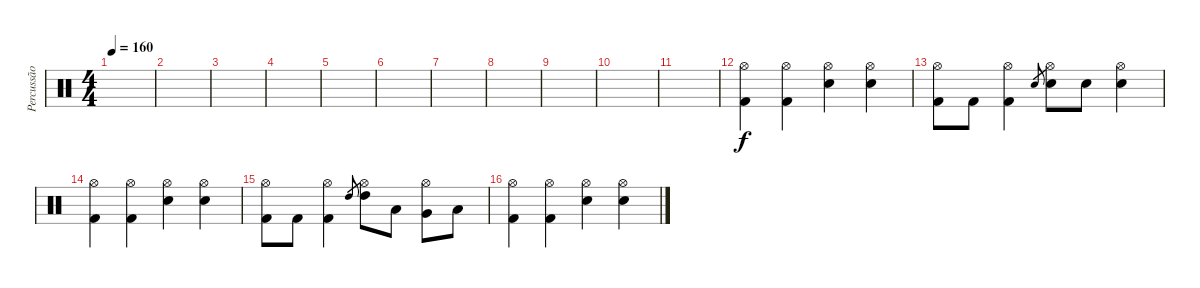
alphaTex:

\track ("Percussão" "Percussão") {instrument percussion}
\staff {score}
\articulation defaults
\ts (4 4)
\tempo 160
\clef neutral
\ks c
|
|
|
|
|
|
|
|
|
|
|
("Hi-Hat (open)" "Kick (hit) 2").4{dy f} ("Hi-Hat (open)" "Kick (hit) 2").4 ("Hi-Hat (open)" "Electric Snare (hit)").4 ("Hi-Hat (open)" "Electric Snare (hit)").4 |
("Hi-Hat (open)" "Kick (hit) 2").8 "Kick (hit) 2".8 ("Hi-Hat (open)" "Kick (hit) 2").4 "Electric Snare (hit)".8{gr} ("Hi-Hat (open)" "Electric Snare (hit)").8 "Electric Snare (hit)".8 ("Hi-Hat (open)" "Electric Snare (hit)").4 |
("Hi-Hat (open)" "Kick (hit) 2").4 ("Hi-Hat (open)" "Kick (hit) 2").4 ("Hi-Hat (open)" "Electric Snare (hit)").4 ("Hi-Hat (open)" "Electric Snare (hit)").4 |
("Hi-Hat (open)" "Kick (hit) 2").8 "Kick (hit) 2".8 ("Hi-Hat (open)" "Kick (hit) 2").4 "High Tom (hit)".8{gr} ("Hi-Hat (open)" "High Tom (hit)").8 "Low Tom (hit)".8 ("Hi-Hat (open)" "Very Low Tom (hit)").8 "Low Floor Tom (hit)".8 |
("Hi-Hat (open)" "Kick (hit) 2").4 ("Hi-Hat (open)" "Kick (hit) 2").4 ("Hi-Hat (open)" "Electric Snare (hit)").4 ("Hi-Hat (open)" "Electric Snare (hit)").4
